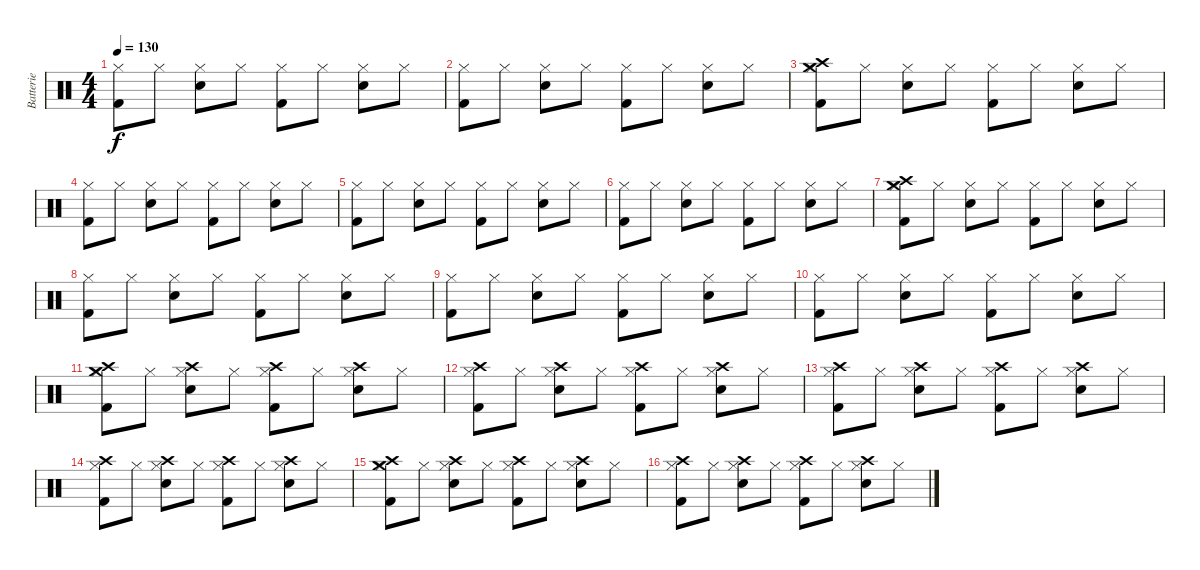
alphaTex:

\track ("Batterie" "Batterie") {instrument percussion}
\staff {score}
\articulation defaults
\ts (4 4)
\tempo 130
\clef neutral
\ks c
("Hi-Hat (closed)" "Kick (hit) 2").8{dy f} "Hi-Hat (closed)".8 ("Hi-Hat (closed)" "Electric Snare (hit)").8 "Hi-Hat (closed)".8 ("Hi-Hat (closed)" "Kick (hit) 2").8 "Hi-Hat (closed)".8 ("Hi-Hat (closed)" "Electric Snare (hit)").8 "Hi-Hat (closed)".8 |
("Hi-Hat (closed)" "Kick (hit) 2").8 "Hi-Hat (closed)".8 ("Hi-Hat (closed)" "Electric Snare (hit)").8 "Hi-Hat (closed)".8 ("Hi-Hat (closed)" "Kick (hit) 2").8 "Hi-Hat (closed)".8 ("Hi-Hat (closed)" "Electric Snare (hit)").8 "Hi-Hat (closed)".8 |
("Hi-Hat (closed)" "Kick (hit) 2" "Crash high (hit)" "Crash medium (hit)").8 "Hi-Hat (closed)".8 ("Hi-Hat (closed)" "Electric Snare (hit)").8 "Hi-Hat (closed)".8 ("Hi-Hat (closed)" "Kick (hit) 2").8 "Hi-Hat (closed)".8 ("Hi-Hat (closed)" "Electric Snare (hit)").8 "Hi-Hat (closed)".8 |
("Hi-Hat (closed)" "Kick (hit) 2").8 "Hi-Hat (closed)".8 ("Hi-Hat (closed)" "Electric Snare (hit)").8 "Hi-Hat (closed)".8 ("Hi-Hat (closed)" "Kick (hit) 2").8 "Hi-Hat (closed)".8 ("Hi-Hat (closed)" "Electric Snare (hit)").8 "Hi-Hat (closed)".8 |
("Hi-Hat (closed)" "Kick (hit) 2").8 "Hi-Hat (closed)".8 ("Hi-Hat (closed)" "Electric Snare (hit)").8 "Hi-Hat (closed)".8 ("Hi-Hat (closed)" "Kick (hit) 2").8 "Hi-Hat (closed)".8 ("Hi-Hat (closed)" "Electric Snare (hit)").8 "Hi-Hat (closed)".8 |
("Hi-Hat (closed)" "Kick (hit) 2").8 "Hi-Hat (closed)".8 ("Hi-Hat (closed)" "Electric Snare (hit)").8 "Hi-Hat (closed)".8 ("Hi-Hat (closed)" "Kick (hit) 2").8 "Hi-Hat (closed)".8 ("Hi-Hat (closed)" "Electric Snare (hit)").8 "Hi-Hat (closed)".8 |
("Hi-Hat (closed)" "Kick (hit) 2" "Crash high (hit)" "Crash medium (hit)").8 "Hi-Hat (closed)".8 ("Hi-Hat (closed)" "Electric Snare (hit)").8 "Hi-Hat (closed)".8 ("Hi-Hat (closed)" "Kick (hit) 2").8 "Hi-Hat (closed)".8 ("Hi-Hat (closed)" "Electric Snare (hit)").8 "Hi-Hat (closed)".8 |
("Hi-Hat (closed)" "Kick (hit) 2").8 "Hi-Hat (closed)".8 ("Hi-Hat (closed)" "Electric Snare (hit)").8 "Hi-Hat (closed)".8 ("Hi-Hat (closed)" "Kick (hit) 2").8 "Hi-Hat (closed)".8 ("Hi-Hat (closed)" "Electric Snare (hit)").8 "Hi-Hat (closed)".8 |
("Hi-Hat (closed)" "Kick (hit) 2").8 "Hi-Hat (closed)".8 ("Hi-Hat (closed)" "Electric Snare (hit)").8 "Hi-Hat (closed)".8 ("Hi-Hat (closed)" "Kick (hit) 2").8 "Hi-Hat (closed)".8 ("Hi-Hat (closed)" "Electric Snare (hit)").8 "Hi-Hat (closed)".8 |
("Hi-Hat (closed)" "Kick (hit) 2").8 "Hi-Hat (closed)".8 ("Hi-Hat (closed)" "Electric Snare (hit)").8 "Hi-Hat (closed)".8 ("Hi-Hat (closed)" "Kick (hit) 2").8 "Hi-Hat (closed)".8 ("Hi-Hat (closed)" "Electric Snare (hit)").8 "Hi-Hat (closed)".8 |
("Hi-Hat (closed)" "Kick (hit) 2" "Crash high (hit)" "Crash medium (hit)").8 "Hi-Hat (closed)".8 ("Hi-Hat (closed)" "Electric Snare (hit)" "Crash high (hit)").8 "Hi-Hat (closed)".8 ("Hi-Hat (closed)" "Kick (hit) 2" "Crash high (hit)").8 "Hi-Hat (closed)".8 ("Hi-Hat (closed)" "Electric Snare (hit)" "Crash high (hit)").8 "Hi-Hat (closed)".8 |
("Hi-Hat (closed)" "Kick (hit) 2" "Crash high (hit)").8 "Hi-Hat (closed)".8 ("Hi-Hat (closed)" "Electric Snare (hit)" "Crash high (hit)").8 "Hi-Hat (closed)".8 ("Hi-Hat (closed)" "Kick (hit) 2" "Crash high (hit)").8 "Hi-Hat (closed)".8 ("Hi-Hat (closed)" "Electric Snare (hit)" "Crash high (hit)").8 "Hi-Hat (closed)".8 |
("Hi-Hat (closed)" "Kick (hit) 2" "Crash high (hit)").8 "Hi-Hat (closed)".8 ("Hi-Hat (closed)" "Electric Snare (hit)" "Crash high (hit)").8 "Hi-Hat (closed)".8 ("Hi-Hat (closed)" "Kick (hit) 2" "Crash high (hit)").8 "Hi-Hat (closed)".8 ("Hi-Hat (closed)" "Electric Snare (hit)" "Crash high (hit)").8 "Hi-Hat (closed)".8 |
("Hi-Hat (closed)" "Kick (hit) 2" "Crash high (hit)").8 "Hi-Hat (closed)".8 ("Hi-Hat (closed)" "Electric Snare (hit)" "Crash high (hit)").8 "Hi-Hat (closed)".8 ("Hi-Hat (closed)" "Kick (hit) 2" "Crash high (hit)").8 "Hi-Hat (closed)".8 ("Hi-Hat (closed)" "Electric Snare (hit)" "Crash high (hit)").8 "Hi-Hat (closed)".8 |
("Hi-Hat (closed)" "Kick (hit) 2" "Crash high (hit)" "Crash medium (hit)").8 "Hi-Hat (closed)".8 ("Hi-Hat (closed)" "Electric Snare (hit)" "Crash high (hit)").8 "Hi-Hat (closed)".8 ("Hi-Hat (closed)" "Kick (hit) 2" "Crash high (hit)").8 "Hi-Hat (closed)".8 ("Hi-Hat (closed)" "Electric Snare (hit)" "Crash high (hit)").8 "Hi-Hat (closed)".8 |
("Hi-Hat (closed)" "Kick (hit) 2" "Crash high (hit)").8 "Hi-Hat (closed)".8 ("Hi-Hat (closed)" "Electric Snare (hit)" "Crash high (hit)").8 "Hi-Hat (closed)".8 ("Hi-Hat (closed)" "Kick (hit) 2" "Crash high (hit)").8 "Hi-Hat (closed)".8 ("Hi-Hat (closed)" "Electric Snare (hit)" "Crash high (hit)").8 "Hi-Hat (closed)".8
